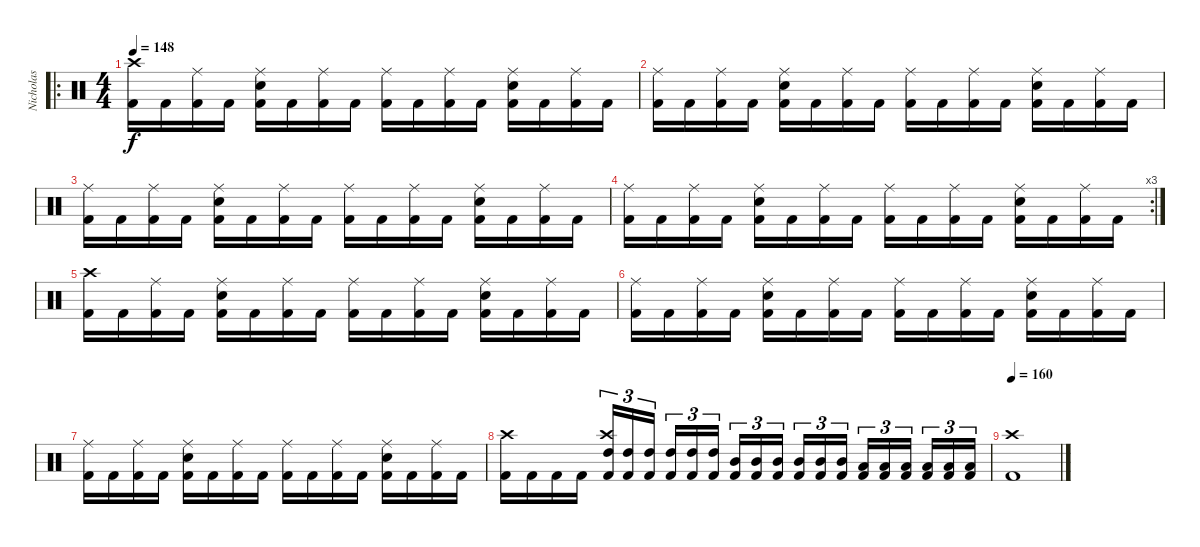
\track ("Nicholas" "Nicholas") {instrument percussion}
\staff {score}
\articulation defaults
\ro
\ts (4 4)
\tempo 148
\clef neutral
\ks c
("Kick (hit) 2" "Crash high (hit)").16{dy f} "Kick (hit) 2".16 ("Kick (hit) 2" "Ride (middle)").16 "Kick (hit) 2".16 ("Kick (hit) 2" "Snare (hit) 2" "Ride (middle)").16 "Kick (hit) 2".16 ("Kick (hit) 2" "Ride (middle)").16 "Kick (hit) 2".16 ("Kick (hit) 2" "Ride (middle)").16 "Kick (hit) 2".16 ("Kick (hit) 2" "Ride (middle)").16 "Kick (hit) 2".16 ("Kick (hit) 2" "Snare (hit) 2" "Ride (middle)").16 "Kick (hit) 2".16 ("Kick (hit) 2" "Ride (middle)").16 "Kick (hit) 2".16 |
("Kick (hit) 2" "Ride (middle)").16 "Kick (hit) 2".16 ("Kick (hit) 2" "Ride (middle)").16 "Kick (hit) 2".16 ("Kick (hit) 2" "Snare (hit) 2" "Ride (middle)").16 "Kick (hit) 2".16 ("Kick (hit) 2" "Ride (middle)").16 "Kick (hit) 2".16 ("Kick (hit) 2" "Ride (middle)").16 "Kick (hit) 2".16 ("Kick (hit) 2" "Ride (middle)").16 "Kick (hit) 2".16 ("Kick (hit) 2" "Snare (hit) 2" "Ride (middle)").16 "Kick (hit) 2".16 ("Kick (hit) 2" "Ride (middle)").16 "Kick (hit) 2".16 |
("Kick (hit) 2" "Ride (middle)").16 "Kick (hit) 2".16 ("Kick (hit) 2" "Ride (middle)").16 "Kick (hit) 2".16 ("Kick (hit) 2" "Snare (hit) 2" "Ride (middle)").16 "Kick (hit) 2".16 ("Kick (hit) 2" "Ride (middle)").16 "Kick (hit) 2".16 ("Kick (hit) 2" "Ride (middle)").16 "Kick (hit) 2".16 ("Kick (hit) 2" "Ride (middle)").16 "Kick (hit) 2".16 ("Kick (hit) 2" "Snare (hit) 2" "Ride (middle)").16 "Kick (hit) 2".16 ("Kick (hit) 2" "Ride (middle)").16 "Kick (hit) 2".16 |
\rc 3
("Kick (hit) 2" "Ride (middle)").16 "Kick (hit) 2".16 ("Kick (hit) 2" "Ride (middle)").16 "Kick (hit) 2".16 ("Kick (hit) 2" "Snare (hit) 2" "Ride (middle)").16 "Kick (hit) 2".16 ("Kick (hit) 2" "Ride (middle)").16 "Kick (hit) 2".16 ("Kick (hit) 2" "Ride (middle)").16 "Kick (hit) 2".16 ("Kick (hit) 2" "Ride (middle)").16 "Kick (hit) 2".16 ("Kick (hit) 2" "Snare (hit) 2" "Ride (middle)").16 "Kick (hit) 2".16 ("Kick (hit) 2" "Ride (middle)").16 "Kick (hit) 2".16 |
("Kick (hit) 2" "Crash high (hit)").16 "Kick (hit) 2".16 ("Kick (hit) 2" "Ride (middle)").16 "Kick (hit) 2".16 ("Kick (hit) 2" "Snare (hit) 2" "Ride (middle)").16 "Kick (hit) 2".16 ("Kick (hit) 2" "Ride (middle)").16 "Kick (hit) 2".16 ("Kick (hit) 2" "Ride (middle)").16 "Kick (hit) 2".16 ("Kick (hit) 2" "Ride (middle)").16 "Kick (hit) 2".16 ("Kick (hit) 2" "Snare (hit) 2" "Ride (middle)").16 "Kick (hit) 2".16 ("Kick (hit) 2" "Ride (middle)").16 "Kick (hit) 2".16 |
("Kick (hit) 2" "Ride (middle)").16 "Kick (hit) 2".16 ("Kick (hit) 2" "Ride (middle)").16 "Kick (hit) 2".16 ("Kick (hit) 2" "Snare (hit) 2" "Ride (middle)").16 "Kick (hit) 2".16 ("Kick (hit) 2" "Ride (middle)").16 "Kick (hit) 2".16 ("Kick (hit) 2" "Ride (middle)").16 "Kick (hit) 2".16 ("Kick (hit) 2" "Ride (middle)").16 "Kick (hit) 2".16 ("Kick (hit) 2" "Snare (hit) 2" "Ride (middle)").16 "Kick (hit) 2".16 ("Kick (hit) 2" "Ride (middle)").16 "Kick (hit) 2".16 |
("Kick (hit) 2" "Ride (middle)").16 "Kick (hit) 2".16 ("Kick (hit) 2" "Ride (middle)").16 "Kick (hit) 2".16 ("Kick (hit) 2" "Snare (hit) 2" "Ride (middle)").16 "Kick (hit) 2".16 ("Kick (hit) 2" "Ride (middle)").16 "Kick (hit) 2".16 ("Kick (hit) 2" "Ride (middle)").16 "Kick (hit) 2".16 ("Kick (hit) 2" "Ride (middle)").16 "Kick (hit) 2".16 ("Kick (hit) 2" "Snare (hit) 2" "Ride (middle)").16 "Kick (hit) 2".16 ("Kick (hit) 2" "Ride (middle)").16 "Kick (hit) 2".16 |
("Kick (hit) 2" "Crash high (hit)").16 "Kick (hit) 2".16 "Kick (hit) 2".16 "Kick (hit) 2".16 ("Kick (hit) 2" "High Tom (hit)" "Crash high (hit)").16{tu (3 2)} ("Kick (hit) 2" "High Tom (hit)").16{tu (3 2)} ("Kick (hit) 2" "High Tom (hit)").16{tu (3 2)} ("Kick (hit) 2" "High Tom (hit)").16{tu (3 2)} ("Kick (hit) 2" "High Tom (hit)").16{tu (3 2)} ("Kick (hit) 2" "High Tom (hit)").16{tu (3 2)} ("Kick (hit) 2" "Mid Tom (hit)").16{tu (3 2)} ("Kick (hit) 2" "Mid Tom (hit)").16{tu (3 2)} ("Kick (hit) 2" "Mid Tom (hit)").16{tu (3 2)} ("Kick (hit) 2" "Mid Tom (hit)").16{tu (3 2)} ("Kick (hit) 2" "Mid Tom (hit)").16{tu (3 2)} ("Kick (hit) 2" "Mid Tom (hit)").16{tu (3 2)} ("Kick (hit) 2" "Low Tom (hit)").16{tu (3 2)} ("Kick (hit) 2" "Low Tom (hit)").16{tu (3 2)} ("Kick (hit) 2" "Low Tom (hit)").16{tu (3 2)} ("Kick (hit) 2" "Low Tom (hit)").16{tu (3 2)} ("Kick (hit) 2" "Low Tom (hit)").16{tu (3 2)} ("Kick (hit) 2" "Low Tom (hit)").16{tu (3 2)} |
\tempo 160
("Kick (hit) 2" "Crash high (hit)").1
